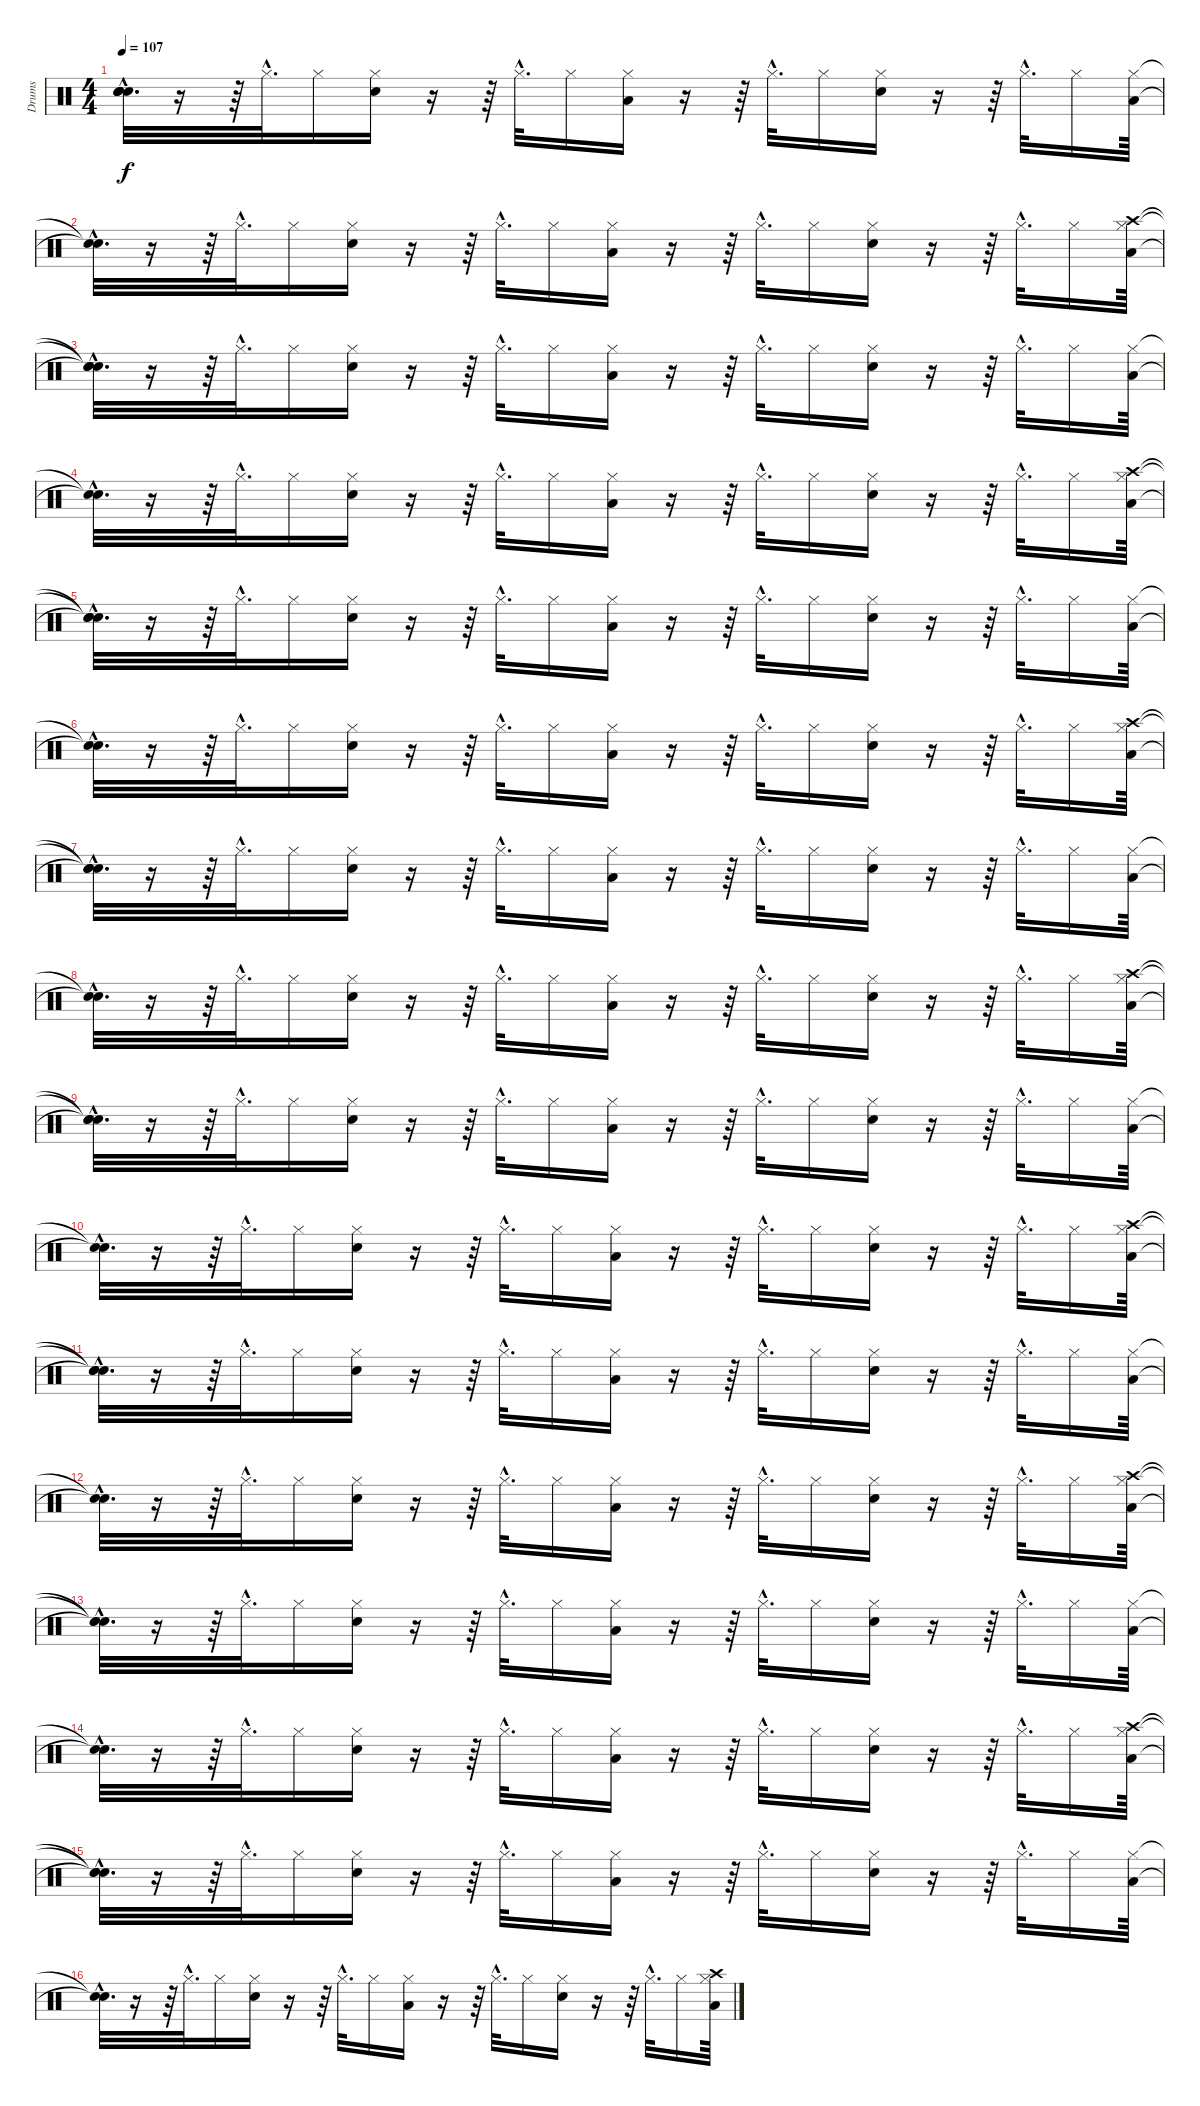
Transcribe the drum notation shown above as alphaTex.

\track ("Drums" "Drums") {instrument percussion}
\staff {score}
\articulation defaults
\ts (4 4)
\tempo 107
\clef neutral
\ks c
("Snare (hit)"{hac} "Snare (hit)"{hac} "Snare (hit)"{hac} "Snare (hit)"{hac}).32{d dy f} r.16 r.64 "Hi-Hat (closed)"{hac}.32{d} "Hi-Hat (closed)".16 ("Hi-Hat (closed)" "Snare (hit) 2").16 r.16 r.64 "Hi-Hat (closed)"{hac}.32{d} "Hi-Hat (closed)".16 ("Hi-Hat (closed)" "Low Tom (hit)").16 r.16 r.64 "Hi-Hat (closed)"{hac}.32{d} "Hi-Hat (closed)".16 ("Hi-Hat (closed)" "Snare (hit) 2").16 r.16 r.64 "Hi-Hat (closed)"{hac}.32{d} "Hi-Hat (closed)".16 ("Hi-Hat (closed)" "Low Tom (hit)").64 |
("Snare (hit)"{hac t} "Snare (hit)"{hac t}).32{d} r.16 r.64 "Hi-Hat (closed)"{hac}.32{d} "Hi-Hat (closed)".16 ("Hi-Hat (closed)" "Snare (hit) 2").16 r.16 r.64 "Hi-Hat (closed)"{hac}.32{d} "Hi-Hat (closed)".16 ("Hi-Hat (closed)" "Low Tom (hit)").16 r.16 r.64 "Hi-Hat (closed)"{hac}.32{d} "Hi-Hat (closed)".16 ("Hi-Hat (closed)" "Snare (hit) 2").16 r.16 r.64 "Hi-Hat (closed)"{hac}.32{d} "Hi-Hat (closed)".16 ("Hi-Hat (closed)" "Crash high (hit)" "Low Tom (hit)").64 |
("Snare (hit)"{hac t} "Snare (hit)"{hac t} "Snare (hit)"{hac t}).32{d} r.16 r.64 "Hi-Hat (closed)"{hac}.32{d} "Hi-Hat (closed)".16 ("Hi-Hat (closed)" "Snare (hit) 2").16 r.16 r.64 "Hi-Hat (closed)"{hac}.32{d} "Hi-Hat (closed)".16 ("Hi-Hat (closed)" "Low Tom (hit)").16 r.16 r.64 "Hi-Hat (closed)"{hac}.32{d} "Hi-Hat (closed)".16 ("Hi-Hat (closed)" "Snare (hit) 2").16 r.16 r.64 "Hi-Hat (closed)"{hac}.32{d} "Hi-Hat (closed)".16 ("Hi-Hat (closed)" "Low Tom (hit)").64 |
("Snare (hit)"{hac t} "Snare (hit)"{hac t}).32{d} r.16 r.64 "Hi-Hat (closed)"{hac}.32{d} "Hi-Hat (closed)".16 ("Hi-Hat (closed)" "Snare (hit) 2").16 r.16 r.64 "Hi-Hat (closed)"{hac}.32{d} "Hi-Hat (closed)".16 ("Hi-Hat (closed)" "Low Tom (hit)").16 r.16 r.64 "Hi-Hat (closed)"{hac}.32{d} "Hi-Hat (closed)".16 ("Hi-Hat (closed)" "Snare (hit) 2").16 r.16 r.64 "Hi-Hat (closed)"{hac}.32{d} "Hi-Hat (closed)".16 ("Hi-Hat (closed)" "Crash high (hit)" "Low Tom (hit)").64 |
("Snare (hit)"{hac t} "Snare (hit)"{hac t} "Snare (hit)"{hac t}).32{d} r.16 r.64 "Hi-Hat (closed)"{hac}.32{d} "Hi-Hat (closed)".16 ("Hi-Hat (closed)" "Snare (hit) 2").16 r.16 r.64 "Hi-Hat (closed)"{hac}.32{d} "Hi-Hat (closed)".16 ("Hi-Hat (closed)" "Low Tom (hit)").16 r.16 r.64 "Hi-Hat (closed)"{hac}.32{d} "Hi-Hat (closed)".16 ("Hi-Hat (closed)" "Snare (hit) 2").16 r.16 r.64 "Hi-Hat (closed)"{hac}.32{d} "Hi-Hat (closed)".16 ("Hi-Hat (closed)" "Low Tom (hit)").64 |
("Snare (hit)"{hac t} "Snare (hit)"{hac t}).32{d} r.16 r.64 "Hi-Hat (closed)"{hac}.32{d} "Hi-Hat (closed)".16 ("Hi-Hat (closed)" "Snare (hit) 2").16 r.16 r.64 "Hi-Hat (closed)"{hac}.32{d} "Hi-Hat (closed)".16 ("Hi-Hat (closed)" "Low Tom (hit)").16 r.16 r.64 "Hi-Hat (closed)"{hac}.32{d} "Hi-Hat (closed)".16 ("Hi-Hat (closed)" "Snare (hit) 2").16 r.16 r.64 "Hi-Hat (closed)"{hac}.32{d} "Hi-Hat (closed)".16 ("Hi-Hat (closed)" "Crash high (hit)" "Low Tom (hit)").64 |
("Snare (hit)"{hac t} "Snare (hit)"{hac t} "Snare (hit)"{hac t}).32{d} r.16 r.64 "Hi-Hat (closed)"{hac}.32{d} "Hi-Hat (closed)".16 ("Hi-Hat (closed)" "Snare (hit) 2").16 r.16 r.64 "Hi-Hat (closed)"{hac}.32{d} "Hi-Hat (closed)".16 ("Hi-Hat (closed)" "Low Tom (hit)").16 r.16 r.64 "Hi-Hat (closed)"{hac}.32{d} "Hi-Hat (closed)".16 ("Hi-Hat (closed)" "Snare (hit) 2").16 r.16 r.64 "Hi-Hat (closed)"{hac}.32{d} "Hi-Hat (closed)".16 ("Hi-Hat (closed)" "Low Tom (hit)").64 |
("Snare (hit)"{hac t} "Snare (hit)"{hac t}).32{d} r.16 r.64 "Hi-Hat (closed)"{hac}.32{d} "Hi-Hat (closed)".16 ("Hi-Hat (closed)" "Snare (hit) 2").16 r.16 r.64 "Hi-Hat (closed)"{hac}.32{d} "Hi-Hat (closed)".16 ("Hi-Hat (closed)" "Low Tom (hit)").16 r.16 r.64 "Hi-Hat (closed)"{hac}.32{d} "Hi-Hat (closed)".16 ("Hi-Hat (closed)" "Snare (hit) 2").16 r.16 r.64 "Hi-Hat (closed)"{hac}.32{d} "Hi-Hat (closed)".16 ("Hi-Hat (closed)" "Crash high (hit)" "Low Tom (hit)").64 |
("Snare (hit)"{hac t} "Snare (hit)"{hac t} "Snare (hit)"{hac t}).32{d} r.16 r.64 "Hi-Hat (closed)"{hac}.32{d} "Hi-Hat (closed)".16 ("Hi-Hat (closed)" "Snare (hit) 2").16 r.16 r.64 "Hi-Hat (closed)"{hac}.32{d} "Hi-Hat (closed)".16 ("Hi-Hat (closed)" "Low Tom (hit)").16 r.16 r.64 "Hi-Hat (closed)"{hac}.32{d} "Hi-Hat (closed)".16 ("Hi-Hat (closed)" "Snare (hit) 2").16 r.16 r.64 "Hi-Hat (closed)"{hac}.32{d} "Hi-Hat (closed)".16 ("Hi-Hat (closed)" "Low Tom (hit)").64 |
("Snare (hit)"{hac t} "Snare (hit)"{hac t}).32{d} r.16 r.64 "Hi-Hat (closed)"{hac}.32{d} "Hi-Hat (closed)".16 ("Hi-Hat (closed)" "Snare (hit) 2").16 r.16 r.64 "Hi-Hat (closed)"{hac}.32{d} "Hi-Hat (closed)".16 ("Hi-Hat (closed)" "Low Tom (hit)").16 r.16 r.64 "Hi-Hat (closed)"{hac}.32{d} "Hi-Hat (closed)".16 ("Hi-Hat (closed)" "Snare (hit) 2").16 r.16 r.64 "Hi-Hat (closed)"{hac}.32{d} "Hi-Hat (closed)".16 ("Hi-Hat (closed)" "Crash high (hit)" "Low Tom (hit)").64 |
("Snare (hit)"{hac t} "Snare (hit)"{hac t} "Snare (hit)"{hac t}).32{d} r.16 r.64 "Hi-Hat (closed)"{hac}.32{d} "Hi-Hat (closed)".16 ("Hi-Hat (closed)" "Snare (hit) 2").16 r.16 r.64 "Hi-Hat (closed)"{hac}.32{d} "Hi-Hat (closed)".16 ("Hi-Hat (closed)" "Low Tom (hit)").16 r.16 r.64 "Hi-Hat (closed)"{hac}.32{d} "Hi-Hat (closed)".16 ("Hi-Hat (closed)" "Snare (hit) 2").16 r.16 r.64 "Hi-Hat (closed)"{hac}.32{d} "Hi-Hat (closed)".16 ("Hi-Hat (closed)" "Low Tom (hit)").64 |
("Snare (hit)"{hac t} "Snare (hit)"{hac t}).32{d} r.16 r.64 "Hi-Hat (closed)"{hac}.32{d} "Hi-Hat (closed)".16 ("Hi-Hat (closed)" "Snare (hit) 2").16 r.16 r.64 "Hi-Hat (closed)"{hac}.32{d} "Hi-Hat (closed)".16 ("Hi-Hat (closed)" "Low Tom (hit)").16 r.16 r.64 "Hi-Hat (closed)"{hac}.32{d} "Hi-Hat (closed)".16 ("Hi-Hat (closed)" "Snare (hit) 2").16 r.16 r.64 "Hi-Hat (closed)"{hac}.32{d} "Hi-Hat (closed)".16 ("Hi-Hat (closed)" "Crash high (hit)" "Low Tom (hit)").64 |
("Snare (hit)"{hac t} "Snare (hit)"{hac t} "Snare (hit)"{hac t}).32{d} r.16 r.64 "Hi-Hat (closed)"{hac}.32{d} "Hi-Hat (closed)".16 ("Hi-Hat (closed)" "Snare (hit) 2").16 r.16 r.64 "Hi-Hat (closed)"{hac}.32{d} "Hi-Hat (closed)".16 ("Hi-Hat (closed)" "Low Tom (hit)").16 r.16 r.64 "Hi-Hat (closed)"{hac}.32{d} "Hi-Hat (closed)".16 ("Hi-Hat (closed)" "Snare (hit) 2").16 r.16 r.64 "Hi-Hat (closed)"{hac}.32{d} "Hi-Hat (closed)".16 ("Hi-Hat (closed)" "Low Tom (hit)").64 |
("Snare (hit)"{hac t} "Snare (hit)"{hac t}).32{d} r.16 r.64 "Hi-Hat (closed)"{hac}.32{d} "Hi-Hat (closed)".16 ("Hi-Hat (closed)" "Snare (hit) 2").16 r.16 r.64 "Hi-Hat (closed)"{hac}.32{d} "Hi-Hat (closed)".16 ("Hi-Hat (closed)" "Low Tom (hit)").16 r.16 r.64 "Hi-Hat (closed)"{hac}.32{d} "Hi-Hat (closed)".16 ("Hi-Hat (closed)" "Snare (hit) 2").16 r.16 r.64 "Hi-Hat (closed)"{hac}.32{d} "Hi-Hat (closed)".16 ("Hi-Hat (closed)" "Crash high (hit)" "Low Tom (hit)").64 |
("Snare (hit)"{hac t} "Snare (hit)"{hac t} "Snare (hit)"{hac t}).32{d} r.16 r.64 "Hi-Hat (closed)"{hac}.32{d} "Hi-Hat (closed)".16 ("Hi-Hat (closed)" "Snare (hit) 2").16 r.16 r.64 "Hi-Hat (closed)"{hac}.32{d} "Hi-Hat (closed)".16 ("Hi-Hat (closed)" "Low Tom (hit)").16 r.16 r.64 "Hi-Hat (closed)"{hac}.32{d} "Hi-Hat (closed)".16 ("Hi-Hat (closed)" "Snare (hit) 2").16 r.16 r.64 "Hi-Hat (closed)"{hac}.32{d} "Hi-Hat (closed)".16 ("Hi-Hat (closed)" "Low Tom (hit)").64 |
("Snare (hit)"{hac t} "Snare (hit)"{hac t}).32{d} r.16 r.64 "Hi-Hat (closed)"{hac}.32{d} "Hi-Hat (closed)".16 ("Hi-Hat (closed)" "Snare (hit) 2").16 r.16 r.64 "Hi-Hat (closed)"{hac}.32{d} "Hi-Hat (closed)".16 ("Hi-Hat (closed)" "Low Tom (hit)").16 r.16 r.64 "Hi-Hat (closed)"{hac}.32{d} "Hi-Hat (closed)".16 ("Hi-Hat (closed)" "Snare (hit) 2").16 r.16 r.64 "Hi-Hat (closed)"{hac}.32{d} "Hi-Hat (closed)".16 ("Hi-Hat (closed)" "Crash high (hit)" "Low Tom (hit)").64
